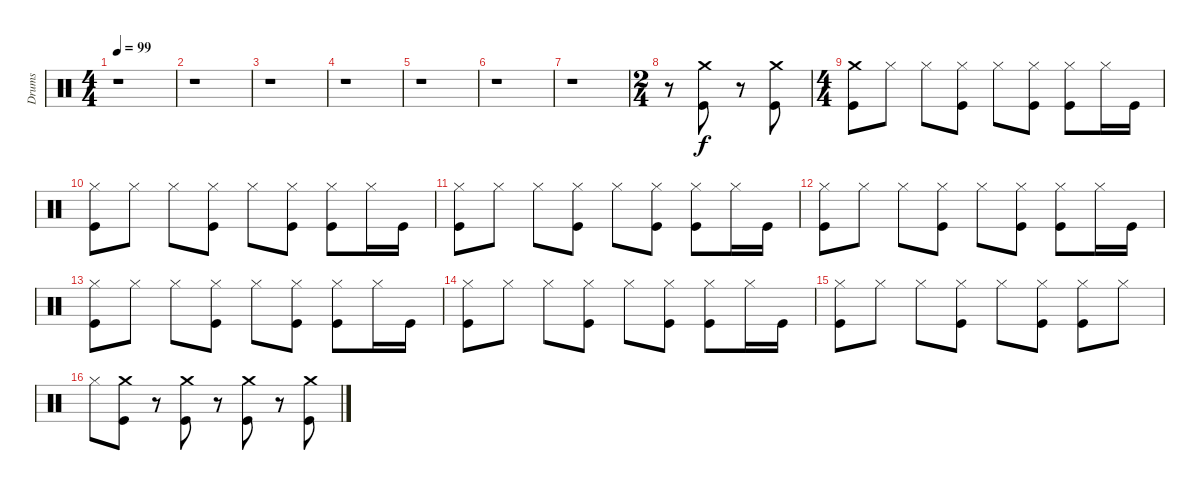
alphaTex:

\track ("Drums" "Drums") {instrument percussion}
\staff {score}
\articulation defaults
\ts (4 4)
\tempo 99
\clef neutral
\ks c
r.1{dy f} |
r.1 |
r.1 |
r.1 |
r.1 |
r.1 |
r.1 |
\ts (2 4)
r.8 ("Kick (hit)" "Crash medium (hit)").8 r.8 ("Kick (hit)" "Crash medium (hit)").8 |
\ts (4 4)
("Crash medium (hit)" "Kick (hit)").8 "Hi-Hat (closed)".8 "Hi-Hat (closed)".8 ("Kick (hit)" "Hi-Hat (closed)").8 "Hi-Hat (closed)".8 ("Kick (hit)" "Hi-Hat (closed)").8 ("Kick (hit)" "Hi-Hat (closed)").8 "Hi-Hat (closed)".16 "Kick (hit)".16 |
("Kick (hit)" "Hi-Hat (closed)").8 "Hi-Hat (closed)".8 "Hi-Hat (closed)".8 ("Kick (hit)" "Hi-Hat (closed)").8 "Hi-Hat (closed)".8 ("Kick (hit)" "Hi-Hat (closed)").8 ("Kick (hit)" "Hi-Hat (closed)").8 "Hi-Hat (closed)".16 "Kick (hit)".16 |
("Kick (hit)" "Hi-Hat (closed)").8 "Hi-Hat (closed)".8 "Hi-Hat (closed)".8 ("Kick (hit)" "Hi-Hat (closed)").8 "Hi-Hat (closed)".8 ("Kick (hit)" "Hi-Hat (closed)").8 ("Kick (hit)" "Hi-Hat (closed)").8 "Hi-Hat (closed)".16 "Kick (hit)".16 |
("Kick (hit)" "Hi-Hat (closed)").8 "Hi-Hat (closed)".8 "Hi-Hat (closed)".8 ("Kick (hit)" "Hi-Hat (closed)").8 "Hi-Hat (closed)".8 ("Kick (hit)" "Hi-Hat (closed)").8 ("Kick (hit)" "Hi-Hat (closed)").8 "Hi-Hat (closed)".16 "Kick (hit)".16 |
("Kick (hit)" "Hi-Hat (closed)").8 "Hi-Hat (closed)".8 "Hi-Hat (closed)".8 ("Kick (hit)" "Hi-Hat (closed)").8 "Hi-Hat (closed)".8 ("Kick (hit)" "Hi-Hat (closed)").8 ("Kick (hit)" "Hi-Hat (closed)").8 "Hi-Hat (closed)".16 "Kick (hit)".16 |
("Kick (hit)" "Hi-Hat (closed)").8 "Hi-Hat (closed)".8 "Hi-Hat (closed)".8 ("Kick (hit)" "Hi-Hat (closed)").8 "Hi-Hat (closed)".8 ("Kick (hit)" "Hi-Hat (closed)").8 ("Kick (hit)" "Hi-Hat (closed)").8 "Hi-Hat (closed)".16 "Kick (hit)".16 |
("Kick (hit)" "Hi-Hat (closed)").8 "Hi-Hat (closed)".8 "Hi-Hat (closed)".8 ("Kick (hit)" "Hi-Hat (closed)").8 "Hi-Hat (closed)".8 ("Kick (hit)" "Hi-Hat (closed)").8 ("Kick (hit)" "Hi-Hat (closed)").8 "Hi-Hat (closed)".8 |
"Hi-Hat (closed)".8 ("Kick (hit)" "Crash medium (hit)").8 r.8 ("Kick (hit)" "Crash medium (hit)").8 r.8 ("Kick (hit)" "Crash medium (hit)").8 r.8 ("Kick (hit)" "Crash medium (hit)").8
